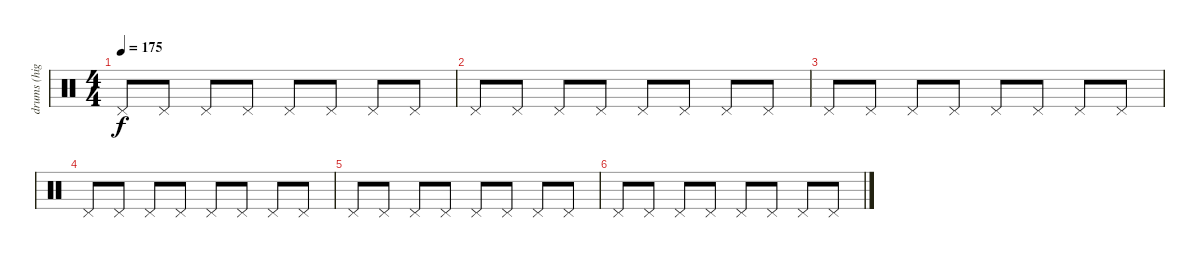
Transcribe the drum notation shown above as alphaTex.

\track ("drums (highhat)" "drums (hig") {instrument percussion}
\staff {score}
\articulation defaults
\ts (4 4)
\tempo 175
\clef neutral
\ks c "Pedal Hi-Hat (hit)".8{dy f} "Pedal Hi-Hat (hit)".8 "Pedal Hi-Hat (hit)".8 "Pedal Hi-Hat (hit)".8 "Pedal Hi-Hat (hit)".8 "Pedal Hi-Hat (hit)".8 "Pedal Hi-Hat (hit)".8 "Pedal Hi-Hat (hit)".8
|
"Pedal Hi-Hat (hit)".8 "Pedal Hi-Hat (hit)".8 "Pedal Hi-Hat (hit)".8 "Pedal Hi-Hat (hit)".8 "Pedal Hi-Hat (hit)".8 "Pedal Hi-Hat (hit)".8 "Pedal Hi-Hat (hit)".8 "Pedal Hi-Hat (hit)".8 |
"Pedal Hi-Hat (hit)".8 "Pedal Hi-Hat (hit)".8 "Pedal Hi-Hat (hit)".8 "Pedal Hi-Hat (hit)".8 "Pedal Hi-Hat (hit)".8 "Pedal Hi-Hat (hit)".8 "Pedal Hi-Hat (hit)".8 "Pedal Hi-Hat (hit)".8 |
"Pedal Hi-Hat (hit)".8 "Pedal Hi-Hat (hit)".8 "Pedal Hi-Hat (hit)".8 "Pedal Hi-Hat (hit)".8 "Pedal Hi-Hat (hit)".8 "Pedal Hi-Hat (hit)".8 "Pedal Hi-Hat (hit)".8 "Pedal Hi-Hat (hit)".8 |
"Pedal Hi-Hat (hit)".8 "Pedal Hi-Hat (hit)".8 "Pedal Hi-Hat (hit)".8 "Pedal Hi-Hat (hit)".8 "Pedal Hi-Hat (hit)".8 "Pedal Hi-Hat (hit)".8 "Pedal Hi-Hat (hit)".8 "Pedal Hi-Hat (hit)".8 |
"Pedal Hi-Hat (hit)".8 "Pedal Hi-Hat (hit)".8 "Pedal Hi-Hat (hit)".8 "Pedal Hi-Hat (hit)".8 "Pedal Hi-Hat (hit)".8 "Pedal Hi-Hat (hit)".8 "Pedal Hi-Hat (hit)".8 "Pedal Hi-Hat (hit)".8
